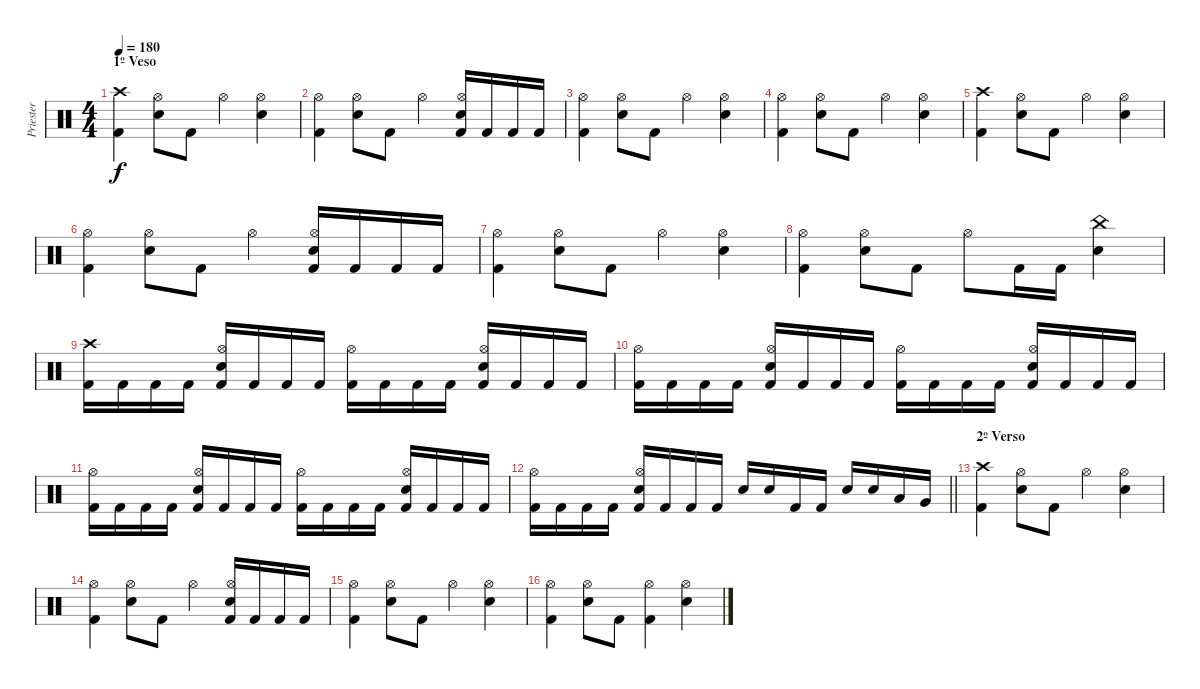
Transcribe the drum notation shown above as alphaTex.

\track ("Priester" "Priester") {instrument percussion}
\staff {score}
\articulation defaults
\ts (4 4)
\section ("" "1º Veso")
\tempo 180
\clef neutral
\ks c
("Crash high (hit)" "Kick (hit) 2").4{dy f} ("Hi-Hat (open)" "Electric Snare (hit)").8 "Kick (hit) 2".8 "Hi-Hat (open)".4 ("Hi-Hat (open)" "Electric Snare (hit)").4 |
("Hi-Hat (open)" "Kick (hit) 2").4 ("Hi-Hat (open)" "Electric Snare (hit)").8 "Kick (hit) 2".8 "Hi-Hat (open)".4 ("Hi-Hat (open)" "Electric Snare (hit)" "Kick (hit) 2").16 "Kick (hit) 2".16 "Kick (hit) 2".16 "Kick (hit) 2".16 |
("Hi-Hat (open)" "Kick (hit) 2").4 ("Hi-Hat (open)" "Electric Snare (hit)").8 "Kick (hit) 2".8 "Hi-Hat (open)".4 ("Hi-Hat (open)" "Electric Snare (hit)").4 |
("Hi-Hat (open)" "Kick (hit) 2").4 ("Hi-Hat (open)" "Electric Snare (hit)").8 "Kick (hit) 2".8 "Hi-Hat (open)".4 ("Hi-Hat (open)" "Electric Snare (hit)").4 |
("Crash high (hit)" "Kick (hit) 2").4 ("Hi-Hat (open)" "Electric Snare (hit)").8 "Kick (hit) 2".8 "Hi-Hat (open)".4 ("Hi-Hat (open)" "Electric Snare (hit)").4 |
("Hi-Hat (open)" "Kick (hit) 2").4 ("Hi-Hat (open)" "Electric Snare (hit)").8 "Kick (hit) 2".8 "Hi-Hat (open)".4 ("Hi-Hat (open)" "Electric Snare (hit)" "Kick (hit) 2").16 "Kick (hit) 2".16 "Kick (hit) 2".16 "Kick (hit) 2".16 |
("Hi-Hat (open)" "Kick (hit) 2").4 ("Hi-Hat (open)" "Electric Snare (hit)").8 "Kick (hit) 2".8 "Hi-Hat (open)".4 ("Hi-Hat (open)" "Electric Snare (hit)").4 |
("Hi-Hat (open)" "Kick (hit) 2").4 ("Hi-Hat (open)" "Electric Snare (hit)").8 "Kick (hit) 2".8 "Hi-Hat (open)".8 "Kick (hit) 2".16 "Kick (hit) 2".16 ("China (hit)" "Electric Snare (hit)").4 |
("Crash high (hit)" "Kick (hit) 2").16 "Kick (hit) 2".16 "Kick (hit) 2".16 "Kick (hit) 2".16 ("Hi-Hat (open)" "Electric Snare (hit)" "Kick (hit) 2").16 "Kick (hit) 2".16 "Kick (hit) 2".16 "Kick (hit) 2".16 ("Hi-Hat (open)" "Kick (hit) 2").16 "Kick (hit) 2".16 "Kick (hit) 2".16 "Kick (hit) 2".16 ("Hi-Hat (open)" "Electric Snare (hit)" "Kick (hit) 2").16 "Kick (hit) 2".16 "Kick (hit) 2".16 "Kick (hit) 2".16 |
("Hi-Hat (open)" "Kick (hit) 2").16 "Kick (hit) 2".16 "Kick (hit) 2".16 "Kick (hit) 2".16 ("Hi-Hat (open)" "Electric Snare (hit)" "Kick (hit) 2").16 "Kick (hit) 2".16 "Kick (hit) 2".16 "Kick (hit) 2".16 ("Hi-Hat (open)" "Kick (hit) 2").16 "Kick (hit) 2".16 "Kick (hit) 2".16 "Kick (hit) 2".16 ("Hi-Hat (open)" "Electric Snare (hit)" "Kick (hit) 2").16 "Kick (hit) 2".16 "Kick (hit) 2".16 "Kick (hit) 2".16 |
("Hi-Hat (open)" "Kick (hit) 2").16 "Kick (hit) 2".16 "Kick (hit) 2".16 "Kick (hit) 2".16 ("Hi-Hat (open)" "Electric Snare (hit)" "Kick (hit) 2").16 "Kick (hit) 2".16 "Kick (hit) 2".16 "Kick (hit) 2".16 ("Hi-Hat (open)" "Kick (hit) 2").16 "Kick (hit) 2".16 "Kick (hit) 2".16 "Kick (hit) 2".16 ("Hi-Hat (open)" "Electric Snare (hit)" "Kick (hit) 2").16 "Kick (hit) 2".16 "Kick (hit) 2".16 "Kick (hit) 2".16 |
\barLineRight lightlight
("Hi-Hat (open)" "Kick (hit) 2").16 "Kick (hit) 2".16 "Kick (hit) 2".16 "Kick (hit) 2".16 ("Hi-Hat (open)" "Electric Snare (hit)" "Kick (hit) 2").16 "Kick (hit) 2".16 "Kick (hit) 2".16 "Kick (hit) 2".16 "Electric Snare (hit)".16 "Electric Snare (hit)".16 "Kick (hit) 2".16 "Kick (hit) 2".16 "Electric Snare (hit)".16 "Electric Snare (hit)".16 "Low Tom (hit)".16 "Very Low Tom (hit)".16 |
\section ("" "2º Verso")
("Crash high (hit)" "Kick (hit) 2").4 ("Hi-Hat (open)" "Electric Snare (hit)").8 "Kick (hit) 2".8 "Hi-Hat (open)".4 ("Hi-Hat (open)" "Electric Snare (hit)").4 |
("Hi-Hat (open)" "Kick (hit) 2").4 ("Hi-Hat (open)" "Electric Snare (hit)").8 "Kick (hit) 2".8 "Hi-Hat (open)".4 ("Hi-Hat (open)" "Electric Snare (hit)" "Kick (hit) 2").16 "Kick (hit) 2".16 "Kick (hit) 2".16 "Kick (hit) 2".16 |
("Hi-Hat (open)" "Kick (hit) 2").4 ("Hi-Hat (open)" "Electric Snare (hit)").8 "Kick (hit) 2".8 "Hi-Hat (open)".4 ("Hi-Hat (open)" "Electric Snare (hit)").4 |
("Hi-Hat (open)" "Kick (hit) 2").4 ("Hi-Hat (open)" "Electric Snare (hit)").8 "Kick (hit) 2".8 ("Hi-Hat (open)" "Kick (hit) 2").4 ("Hi-Hat (open)" "Electric Snare (hit)").4
